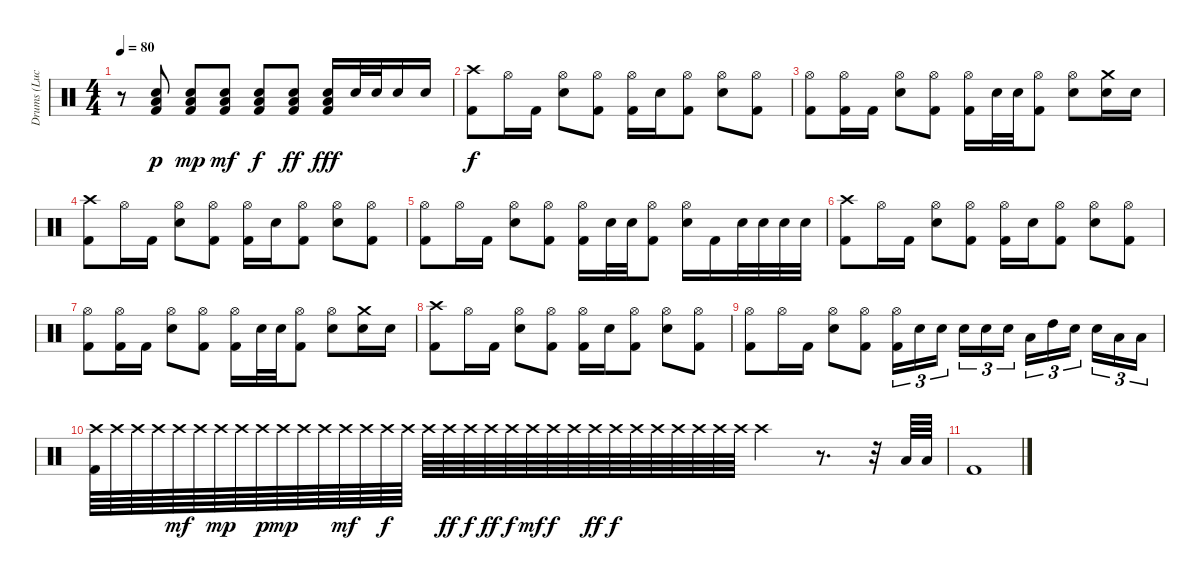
\track ("Drums (Luc)" "Drums (Luc") {instrument percussion}
\staff {score}
\articulation defaults
\ts (4 4)
\tempo 80
\clef neutral
\ks c
r.8{dy f} ("Low Floor Tom (hit)" "Electric Snare (hit)" "Kick (hit) 2").8{dy p} ("Low Floor Tom (hit)" "Electric Snare (hit)" "Kick (hit) 2").8{dy mp} ("Low Floor Tom (hit)" "Electric Snare (hit)" "Kick (hit) 2").8{dy mf} ("Low Floor Tom (hit)" "Electric Snare (hit)" "Kick (hit) 2").8{dy f} ("Low Floor Tom (hit)" "Electric Snare (hit)" "Kick (hit) 2").8{dy ff} ("Low Floor Tom (hit)" "Electric Snare (hit)" "Kick (hit) 2").16{dy fff} "Electric Snare (hit)".32 "Electric Snare (hit)".32 "Electric Snare (hit)".16 "Electric Snare (hit)".16 |
("Crash high (hit)" "Kick (hit) 2").8{dy f} "Hi-Hat (open)".16 "Kick (hit) 2".16 ("Hi-Hat (open)" "Electric Snare (hit)").8 ("Hi-Hat (open)" "Kick (hit) 2").8 ("Hi-Hat (open)" "Kick (hit) 2").16 "Electric Snare (hit)".16 ("Hi-Hat (open)" "Kick (hit) 2").8 ("Hi-Hat (open)" "Electric Snare (hit)").8 ("Hi-Hat (open)" "Kick (hit) 2").8 |
("Hi-Hat (open)" "Kick (hit) 2").8 ("Hi-Hat (open)" "Kick (hit) 2").16 "Kick (hit) 2".16 ("Hi-Hat (open)" "Electric Snare (hit)").8 ("Hi-Hat (open)" "Kick (hit) 2").8 ("Hi-Hat (open)" "Kick (hit) 2").16 "Electric Snare (hit)".32 "Electric Snare (hit)".32 ("Hi-Hat (open)" "Kick (hit) 2").8 ("Hi-Hat (open)" "Electric Snare (hit)").8 ("Crash medium (hit)" "Electric Snare (hit)").16 "Electric Snare (hit)".16 |
("Crash high (hit)" "Kick (hit) 2").8 "Hi-Hat (open)".16 "Kick (hit) 2".16 ("Hi-Hat (open)" "Electric Snare (hit)").8 ("Hi-Hat (open)" "Kick (hit) 2").8 ("Hi-Hat (open)" "Kick (hit) 2").16 "Electric Snare (hit)".16 ("Hi-Hat (open)" "Kick (hit) 2").8 ("Hi-Hat (open)" "Electric Snare (hit)").8 ("Hi-Hat (open)" "Kick (hit) 2").8 |
("Hi-Hat (open)" "Kick (hit) 2").8 "Hi-Hat (open)".16 "Kick (hit) 2".16 ("Hi-Hat (open)" "Electric Snare (hit)").8 ("Hi-Hat (open)" "Kick (hit) 2").8 ("Hi-Hat (open)" "Kick (hit) 2").16 "Electric Snare (hit)".32 "Electric Snare (hit)".32 ("Hi-Hat (open)" "Kick (hit) 2").8 ("Hi-Hat (open)" "Electric Snare (hit)").16 "Kick (hit) 2".16 "Electric Snare (hit)".32 "Electric Snare (hit)".32 "Electric Snare (hit)".32 "Electric Snare (hit)".32 |
("Crash high (hit)" "Kick (hit) 2").8 "Hi-Hat (open)".16 "Kick (hit) 2".16 ("Hi-Hat (open)" "Electric Snare (hit)").8 ("Hi-Hat (open)" "Kick (hit) 2").8 ("Hi-Hat (open)" "Kick (hit) 2").16 "Electric Snare (hit)".16 ("Hi-Hat (open)" "Kick (hit) 2").8 ("Hi-Hat (open)" "Electric Snare (hit)").8 ("Hi-Hat (open)" "Kick (hit) 2").8 |
("Hi-Hat (open)" "Kick (hit) 2").8 ("Hi-Hat (open)" "Kick (hit) 2").16 "Kick (hit) 2".16 ("Hi-Hat (open)" "Electric Snare (hit)").8 ("Hi-Hat (open)" "Kick (hit) 2").8 ("Hi-Hat (open)" "Kick (hit) 2").16 "Electric Snare (hit)".32 "Electric Snare (hit)".32 ("Hi-Hat (open)" "Kick (hit) 2").8 ("Hi-Hat (open)" "Electric Snare (hit)").8 ("Crash medium (hit)" "Electric Snare (hit)").16 "Electric Snare (hit)".16 |
("Crash high (hit)" "Kick (hit) 2").8 "Hi-Hat (open)".16 "Kick (hit) 2".16 ("Hi-Hat (open)" "Electric Snare (hit)").8 ("Hi-Hat (open)" "Kick (hit) 2").8 ("Hi-Hat (open)" "Kick (hit) 2").16 "Electric Snare (hit)".16 ("Hi-Hat (open)" "Kick (hit) 2").8 ("Hi-Hat (open)" "Electric Snare (hit)").8 ("Hi-Hat (open)" "Kick (hit) 2").8 |
("Hi-Hat (open)" "Kick (hit) 2").8 "Hi-Hat (open)".16 "Kick (hit) 2".16 ("Hi-Hat (open)" "Electric Snare (hit)").8 ("Hi-Hat (open)" "Kick (hit) 2").8 ("Hi-Hat (open)" "Kick (hit) 2").16{tu (3 2)} "Electric Snare (hit)".16{tu (3 2)} "Electric Snare (hit)".16{tu (3 2)} "Electric Snare (hit)".16{tu (3 2)} "Electric Snare (hit)".16{tu (3 2)} "Electric Snare (hit)".16{tu (3 2)} "Low Tom (hit)".16{tu (3 2)} "High Tom (hit)".16{tu (3 2)} "Electric Snare (hit)".16{tu (3 2)} "Electric Snare (hit)".16{tu (3 2)} "Low Tom (hit)".16{tu (3 2)} "Low Floor Tom (hit)".16{tu (3 2)} |
("Crash high (hit)" "Kick (hit) 2").64 "Crash high (hit)".64 "Crash high (hit)".64 "Crash high (hit)".64 "Crash high (hit)".64{dy mf} "Crash high (hit)".64 "Crash high (hit)".64{dy mp} "Crash high (hit)".64 "Crash high (hit)".64{dy p} "Crash high (hit)".64{dy mp} "Crash high (hit)".64 "Crash high (hit)".64 "Crash high (hit)".64{dy mf} "Crash high (hit)".64 "Crash high (hit)".64{dy f} "Crash high (hit)".64 "Crash high (hit)".64 "Crash high (hit)".64{dy ff} "Crash high (hit)".64{dy f} "Crash high (hit)".64{dy ff} "Crash high (hit)".64{dy f} "Crash high (hit)".64{dy mf} "Crash high (hit)".64{dy f} "Crash high (hit)".64 "Crash high (hit)".64{dy ff} "Crash high (hit)".64{dy f} "Crash high (hit)".64 "Crash high (hit)".64 "Crash high (hit)".64 "Crash high (hit)".64 "Crash high (hit)".64 "Crash high (hit)".64 "Crash high (hit)".4 r.8{d} r.32 "Low Tom (hit)".64 "Low Floor Tom (hit)".64 |
"Kick (hit) 2".1
